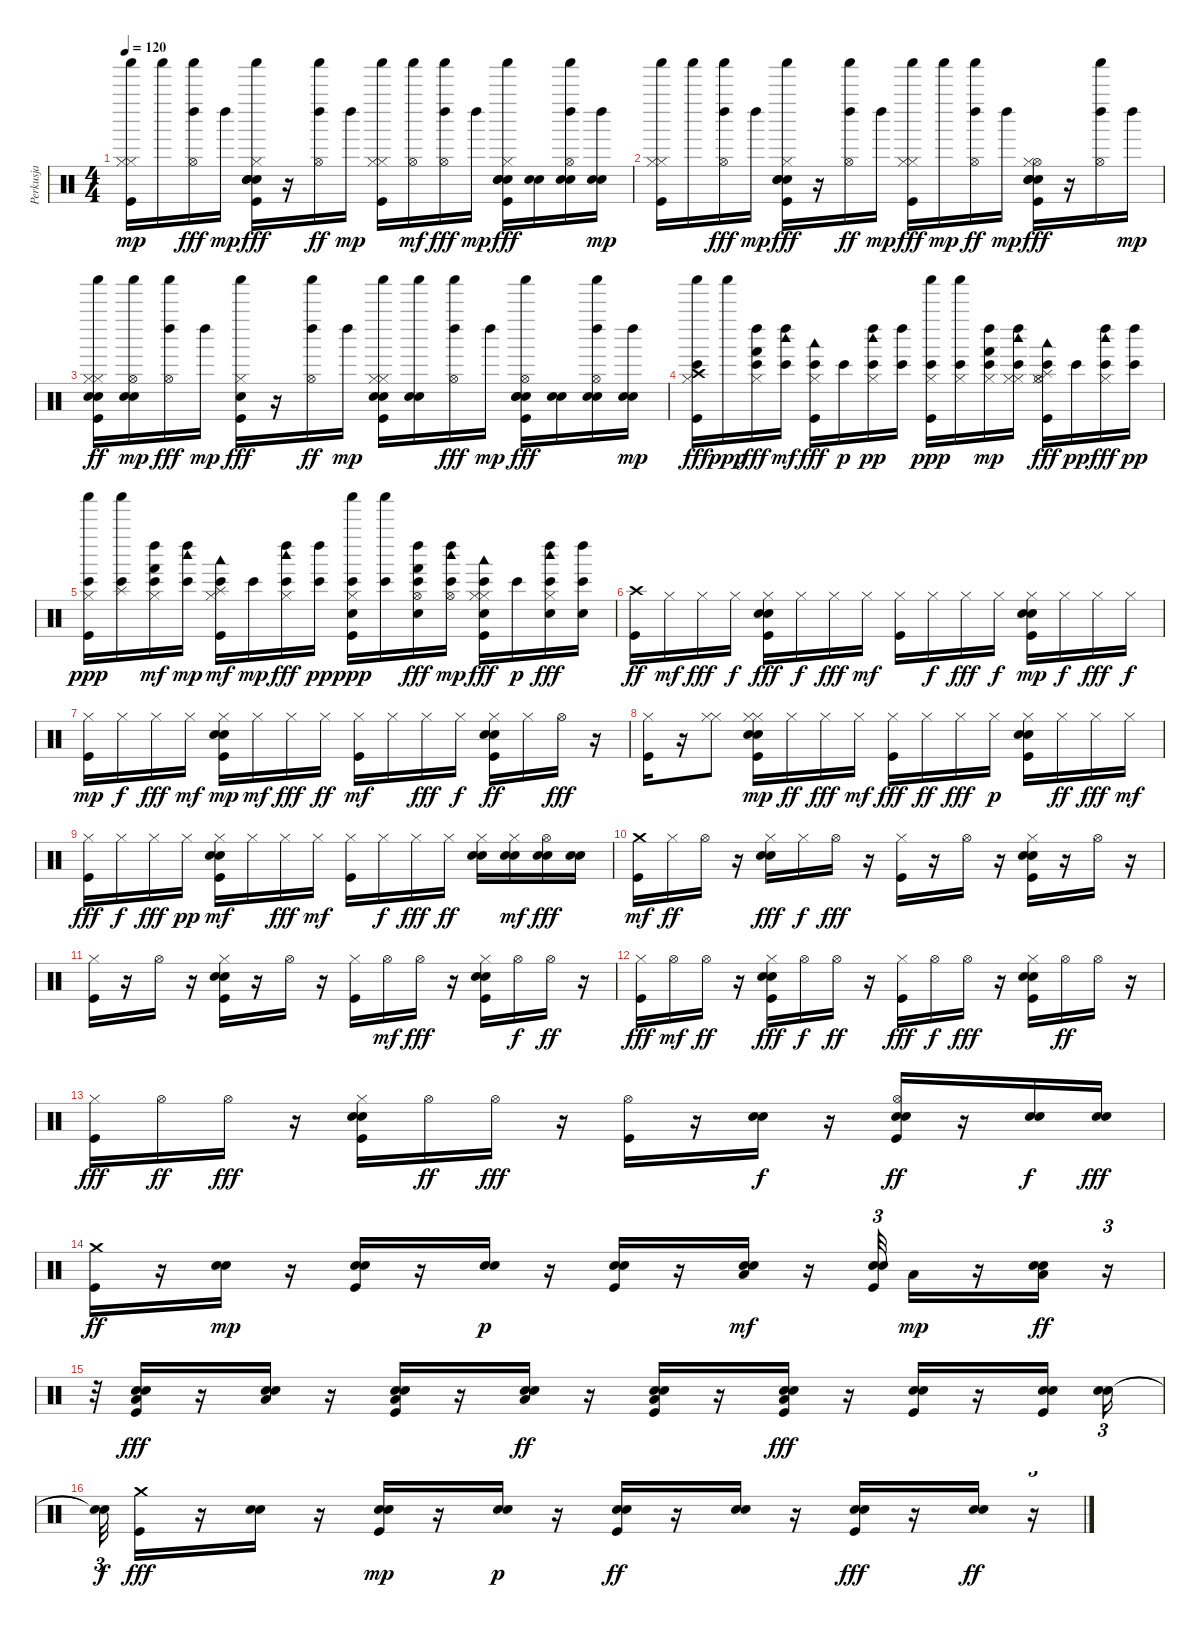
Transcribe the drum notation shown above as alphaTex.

\track ("Perkusja" "Perkusja") {instrument percussion}
\staff {score}
\articulation defaults
\ts (4 4)
\tempo 120
\clef neutral
\ks c
("Hi-Hat (closed)" "Kick (hit)" "Hi-Hat (closed)" "Shaker (hit)").16{dy mp} "Shaker (hit)".16 ("Hi-Hat (open)" "Left Maraca (hit)" "Shaker (hit)").16{dy fff} "Left Maraca (hit)".16{dy mp} ("Kick (hit)" "Snare (hit) 2" "Hand Clap (hit)" "Electric Snare (hit)" "Hi-Hat (closed)" "Shaker (hit)").16{dy fff} r.16 ("Hi-Hat (open)" "Left Maraca (hit)" "Shaker (hit)").16{dy ff} "Left Maraca (hit)".16{dy mp} ("Hi-Hat (closed)" "Kick (hit)" "Hi-Hat (closed)" "Shaker (hit)").16 ("Shaker (hit)" "Hi-Hat (open)").16{dy mf} ("Hi-Hat (open)" "Left Maraca (hit)" "Shaker (hit)").16{dy fff} "Left Maraca (hit)".16{dy mp} ("Kick (hit)" "Snare (hit) 2" "Electric Snare (hit)" "Hi-Hat (closed)" "Shaker (hit)" "Hand Clap (hit)").16{dy fff} ("Snare (hit) 2" "Electric Snare (hit)").16 ("Snare (hit) 2" "Electric Snare (hit)" "Hi-Hat (open)" "Left Maraca (hit)" "Shaker (hit)").16 ("Snare (hit) 2" "Electric Snare (hit)" "Left Maraca (hit)").16{dy mp} |
("Hi-Hat (closed)" "Kick (hit)" "Hi-Hat (closed)" "Shaker (hit)").16 "Shaker (hit)".16 ("Hi-Hat (open)" "Left Maraca (hit)" "Shaker (hit)").16{dy fff} "Left Maraca (hit)".16{dy mp} ("Snare (hit) 2" "Electric Snare (hit)" "Kick (hit)" "Hand Clap (hit)" "Hi-Hat (closed)" "Shaker (hit)").16{dy fff} r.16 ("Hi-Hat (open)" "Left Maraca (hit)" "Shaker (hit)").16{dy ff} "Left Maraca (hit)".16{dy mp} ("Hi-Hat (closed)" "Kick (hit)" "Shaker (hit)" "Hi-Hat (closed)").16{dy fff} "Shaker (hit)".16{dy mp} ("Hi-Hat (open)" "Left Maraca (hit)" "Shaker (hit)").16{dy ff} "Left Maraca (hit)".16{dy mp} ("Hi-Hat (open)" "Kick (hit)" "Snare (hit) 2" "Hand Clap (hit)" "Electric Snare (hit)" "Hi-Hat (closed)").16{dy fff} r.16 ("Hi-Hat (open)" "Left Maraca (hit)" "Shaker (hit)").16 "Left Maraca (hit)".16{dy mp} |
("Hi-Hat (closed)" "Kick (hit)" "Snare (hit) 2" "Electric Snare (hit)" "Shaker (hit)" "Hi-Hat (closed)").16{dy ff} ("Snare (hit) 2" "Electric Snare (hit)" "Hi-Hat (open)" "Shaker (hit)").16{dy mp} ("Hi-Hat (open)" "Left Maraca (hit)" "Shaker (hit)").16{dy fff} "Left Maraca (hit)".16{dy mp} ("Kick (hit)" "Hand Clap (hit)" "Shaker (hit)" "Hi-Hat (closed)").16{dy fff} r.16 ("Hi-Hat (open)" "Left Maraca (hit)" "Shaker (hit)").16{dy ff} "Left Maraca (hit)".16{dy mp} ("Hi-Hat (closed)" "Kick (hit)" "Snare (hit) 2" "Electric Snare (hit)" "Hi-Hat (closed)" "Shaker (hit)").16 ("Snare (hit) 2" "Electric Snare (hit)" "Shaker (hit)").16 ("Hi-Hat (open)" "Left Maraca (hit)" "Shaker (hit)").16{dy fff} "Left Maraca (hit)".16{dy mp} ("Kick (hit)" "Snare (hit) 2" "Electric Snare (hit)" "Hi-Hat (open)" "Shaker (hit)" "Hand Clap (hit)").16{dy fff} ("Snare (hit) 2" "Electric Snare (hit)").16 ("Snare (hit) 2" "Electric Snare (hit)" "Hi-Hat (open)" "Left Maraca (hit)" "Shaker (hit)").16 ("Snare (hit) 2" "Electric Snare (hit)" "Left Maraca (hit)").16{dy mp} |
("Hi-Hat (closed)" "Bongo High (hit)" "Kick (hit)" "Shaker (hit)" "Crash high (hit)").16{dy fff} "Shaker (hit)".16{dy ppp} ("Bongo High (hit)" "Hand (hit)" "Left Maraca (hit)" "Hi-Hat (closed)").16{dy fff} ("Bongo High (hit)" "Left Maraca (hit)" "Woodblock high (hit)").16{dy mf} ("Hi-Hat (closed)" "Bongo High (hit)" "Kick (hit)" "Woodblock low (hit)").16{dy fff} "Bongo High (hit)".16{dy p} ("Bongo High (hit)" "Hi-Hat (closed)" "Left Maraca (hit)" "Woodblock high (hit)").16{dy pp} ("Bongo High (hit)" "Left Maraca (hit)").16 ("Hi-Hat (closed)" "Bongo High (hit)" "Kick (hit)" "Shaker (hit)").16{dy ppp} ("Bongo High (hit)" "Shaker (hit)" "Hi-Hat (closed)").16 ("Hi-Hat (closed)" "Bongo High (hit)" "Left Maraca (hit)" "Hand (hit)").16{dy mp} ("Hi-Hat (closed)" "Bongo High (hit)" "Left Maraca (hit)" "Woodblock high (hit)" "Hi-Hat (closed)").16 ("Splash (hit)" "Hi-Hat (closed)" "Bongo High (hit)" "Kick (hit)" "Hi-Hat (open)" "Woodblock low (hit)").16{dy fff} "Bongo High (hit)".16{dy pp} ("Bongo High (hit)" "Left Maraca (hit)" "Hi-Hat (closed)" "Woodblock high (hit)").16{dy fff} ("Bongo High (hit)" "Left Maraca (hit)").16{dy pp} |
("Hi-Hat (closed)" "Bongo High (hit)" "Kick (hit)" "Shaker (hit)").16{dy ppp} ("Bongo High (hit)" "Splash (hit)" "Shaker (hit)").16 ("Bongo High (hit)" "Hi-Hat (closed)" "Left Maraca (hit)" "Hand (hit)").16{dy mf} ("Bongo High (hit)" "Left Maraca (hit)" "Woodblock high (hit)").16{dy mp} ("Hi-Hat (closed)" "Bongo High (hit)" "Kick (hit)" "Splash (hit)" "Woodblock low (hit)").16{dy mf} "Bongo High (hit)".16{dy mp} ("Bongo High (hit)" "Left Maraca (hit)" "Hi-Hat (closed)" "Woodblock high (hit)").16{dy fff} ("Bongo High (hit)" "Left Maraca (hit)").16{dy pp} ("Electric Snare (hit)" "Hi-Hat (closed)" "Bongo High (hit)" "Kick (hit)" "Shaker (hit)").16{dy ppp} ("Bongo High (hit)" "Shaker (hit)").16 ("Bongo High (hit)" "Electric Snare (hit)" "Left Maraca (hit)" "Hand (hit)" "Hi-Hat (open)").16{dy fff} ("Bongo High (hit)" "Left Maraca (hit)" "Woodblock high (hit)" "Hi-Hat (open)").16{dy mp} ("Hi-Hat (closed)" "Bongo High (hit)" "Kick (hit)" "Woodblock low (hit)" "Hi-Hat (closed)" "Snare (hit) 2").16{dy fff} "Bongo High (hit)".16{dy p} ("Bongo High (hit)" "Left Maraca (hit)" "Woodblock high (hit)" "Hi-Hat (closed)" "Electric Snare (hit)").16{dy fff} ("Bongo High (hit)" "Left Maraca (hit)" "Electric Snare (hit)").16 |
("Kick (hit)" "Crash high (hit)").16{dy ff} "Hi-Hat (closed)".16{dy mf} "Hi-Hat (closed)".16{dy fff} "Hi-Hat (closed)".16{dy f} ("Kick (hit)" "Snare (hit) 2" "Electric Snare (hit)" "Hi-Hat (closed)").16{dy fff} "Hi-Hat (closed)".16{dy f} "Hi-Hat (closed)".16{dy fff} "Hi-Hat (closed)".16{dy mf} ("Kick (hit)" "Hi-Hat (closed)").16 "Hi-Hat (closed)".16{dy f} "Hi-Hat (closed)".16{dy fff} "Hi-Hat (closed)".16{dy f} ("Kick (hit)" "Snare (hit) 2" "Electric Snare (hit)" "Hi-Hat (closed)").16{dy mp} "Hi-Hat (closed)".16{dy f} "Hi-Hat (closed)".16{dy fff} "Hi-Hat (closed)".16{dy f} |
("Kick (hit)" "Hi-Hat (closed)").16{dy mp} "Hi-Hat (closed)".16{dy f} "Hi-Hat (closed)".16{dy fff} "Hi-Hat (closed)".16{dy mf} ("Kick (hit)" "Snare (hit) 2" "Electric Snare (hit)" "Hi-Hat (closed)").16{dy mp} "Hi-Hat (closed)".16{dy mf} "Hi-Hat (closed)".16{dy fff} "Hi-Hat (closed)".16{dy ff} ("Kick (hit)" "Hi-Hat (closed)").16{dy mf} "Hi-Hat (closed)".16 "Hi-Hat (closed)".16{dy fff} "Hi-Hat (closed)".16{dy f} ("Kick (hit)" "Snare (hit) 2" "Electric Snare (hit)" "Hi-Hat (closed)").16{dy ff} "Hi-Hat (closed)".16 "Hi-Hat (open)".16{dy fff} r.16 |
("Kick (hit)" "Hi-Hat (closed)").16 r.16 ("Hi-Hat (closed)" "Hi-Hat (closed)").8 ("Hi-Hat (closed)" "Kick (hit)" "Snare (hit) 2" "Electric Snare (hit)" "Hi-Hat (closed)").16{dy mp} "Hi-Hat (closed)".16{dy ff} "Hi-Hat (closed)".16{dy fff} "Hi-Hat (closed)".16{dy mf} ("Kick (hit)" "Hi-Hat (closed)").16{dy fff} "Hi-Hat (closed)".16{dy ff} "Hi-Hat (closed)".16{dy fff} "Hi-Hat (closed)".16{dy p} ("Kick (hit)" "Snare (hit) 2" "Electric Snare (hit)" "Hi-Hat (closed)").16 "Hi-Hat (closed)".16{dy ff} "Hi-Hat (closed)".16{dy fff} "Hi-Hat (closed)".16{dy mf} |
("Kick (hit)" "Hi-Hat (closed)").16{dy fff} "Hi-Hat (closed)".16{dy f} "Hi-Hat (closed)".16{dy fff} "Hi-Hat (closed)".16{dy pp} ("Kick (hit)" "Snare (hit) 2" "Electric Snare (hit)" "Hi-Hat (closed)").16{dy mf} "Hi-Hat (closed)".16 "Hi-Hat (closed)".16{dy fff} "Hi-Hat (closed)".16{dy mf} ("Kick (hit)" "Hi-Hat (closed)").16 "Hi-Hat (closed)".16{dy f} "Hi-Hat (closed)".16{dy fff} "Hi-Hat (closed)".16{dy ff} ("Snare (hit) 2" "Electric Snare (hit)" "Hi-Hat (closed)").16 ("Snare (hit) 2" "Electric Snare (hit)" "Hi-Hat (closed)").16{dy mf} ("Snare (hit) 2" "Electric Snare (hit)" "Hi-Hat (open)").16{dy fff} ("Snare (hit) 2" "Electric Snare (hit)").16 |
("Kick (hit)" "Crash medium (hit)").16{dy mf} "Hi-Hat (closed)".16{dy ff} "Hi-Hat (open)".16 r.16 ("Snare (hit) 2" "Electric Snare (hit)" "Hi-Hat (closed)").16{dy fff} "Hi-Hat (closed)".16{dy f} "Hi-Hat (open)".16{dy fff} r.16 ("Kick (hit)" "Hi-Hat (closed)").16 r.16 "Hi-Hat (open)".16 r.16 ("Kick (hit)" "Snare (hit) 2" "Electric Snare (hit)" "Hi-Hat (closed)").16 r.16 "Hi-Hat (open)".16 r.16 |
("Kick (hit)" "Hi-Hat (closed)").16 r.16 "Hi-Hat (open)".16 r.16 ("Kick (hit)" "Snare (hit) 2" "Electric Snare (hit)" "Hi-Hat (closed)").16 r.16 "Hi-Hat (open)".16 r.16 ("Kick (hit)" "Hi-Hat (closed)").16 "Hi-Hat (open)".16{dy mf} "Hi-Hat (open)".16{dy fff} r.16 ("Kick (hit)" "Snare (hit) 2" "Electric Snare (hit)" "Hi-Hat (closed)").16 "Hi-Hat (open)".16{dy f} "Hi-Hat (open)".16{dy ff} r.16 |
("Kick (hit)" "Hi-Hat (closed)").16{dy fff} "Hi-Hat (open)".16{dy mf} "Hi-Hat (open)".16{dy ff} r.16 ("Kick (hit)" "Snare (hit) 2" "Electric Snare (hit)" "Hi-Hat (closed)").16{dy fff} "Hi-Hat (open)".16{dy f} "Hi-Hat (open)".16{dy ff} r.16 ("Kick (hit)" "Hi-Hat (closed)").16{dy fff} "Hi-Hat (open)".16{dy f} "Hi-Hat (open)".16{dy fff} r.16 ("Kick (hit)" "Snare (hit) 2" "Electric Snare (hit)" "Hi-Hat (closed)").16 "Hi-Hat (open)".16{dy ff} "Hi-Hat (open)".16 r.16 |
("Kick (hit)" "Hi-Hat (closed)").16{dy fff} "Hi-Hat (open)".16{dy ff} "Hi-Hat (open)".16{dy fff} r.16 ("Kick (hit)" "Snare (hit) 2" "Electric Snare (hit)" "Hi-Hat (closed)").16 "Hi-Hat (open)".16{dy ff} "Hi-Hat (open)".16{dy fff} r.16 ("Kick (hit)" "Hi-Hat (open)").16 r.16 ("Snare (hit) 2" "Electric Snare (hit)").16{dy f} r.16 ("Kick (hit)" "Snare (hit) 2" "Electric Snare (hit)" "Hi-Hat (open)").16{dy ff} r.16 ("Snare (hit) 2" "Electric Snare (hit)").16{dy f} ("Snare (hit) 2" "Electric Snare (hit)").16{dy fff} |
("Kick (hit)" "Crash medium (hit)").16{dy ff} r.16 ("Electric Snare (hit)" "Snare (hit) 2").16{dy mp} r.16 ("Kick (hit)" "Snare (hit) 2" "Electric Snare (hit)").16 r.16 ("Electric Snare (hit)" "Snare (hit) 2").16{dy p} r.16 ("Kick (hit)" "Snare (hit) 2" "Electric Snare (hit)").16 r.16 ("Snare (hit) 2" "Electric Snare (hit)" "Low Floor Tom (hit)").16{dy mf} r.16 ("Kick (hit)" "Snare (hit) 2" "Electric Snare (hit)").32{tu (3 2)} "Low Floor Tom (hit)".16{dy mp} r.16 ("Snare (hit) 2" "Electric Snare (hit)" "Low Floor Tom (hit)").16{dy ff} r.16{tu (3 2)} |
r.32{tu (3 2)} ("Low Floor Tom (hit)" "Kick (hit)" "Snare (hit) 2" "Electric Snare (hit)").16{dy fff} r.16 ("Snare (hit) 2" "Electric Snare (hit)" "Low Floor Tom (hit)").16 r.16 ("Kick (hit)" "Snare (hit) 2" "Electric Snare (hit)" "Low Floor Tom (hit)").16 r.16 ("Snare (hit) 2" "Electric Snare (hit)" "Low Floor Tom (hit)").16{dy ff} r.16 ("Kick (hit)" "Electric Snare (hit)" "Snare (hit) 2" "Low Floor Tom (hit)").16 r.16 ("Kick (hit)" "Snare (hit) 2" "Electric Snare (hit)" "Low Floor Tom (hit)").16{dy fff} r.16 ("Kick (hit)" "Snare (hit) 2" "Electric Snare (hit)").16 r.16 ("Kick (hit)" "Snare (hit) 2" "Electric Snare (hit)").16 ("Snare (hit) 2" "Electric Snare (hit)").16{tu (3 2)} |
("Snare (hit)"{t} "Snare (hit)"{t}).32{tu (3 2) dy f} ("Crash medium (hit)" "Kick (hit)").16{dy fff} r.16 ("Snare (hit) 2" "Electric Snare (hit)").16 r.16 ("Kick (hit)" "Snare (hit) 2" "Electric Snare (hit)").16{dy mp} r.16 ("Electric Snare (hit)" "Snare (hit) 2").16{dy p} r.16 ("Kick (hit)" "Snare (hit) 2" "Electric Snare (hit)").16{dy ff} r.16 ("Electric Snare (hit)" "Snare (hit) 2").16 r.16 ("Electric Snare (hit)" "Snare (hit) 2" "Kick (hit)").16{dy fff} r.16 ("Electric Snare (hit)" "Snare (hit) 2").16{dy ff} r.16{tu (3 2)}
